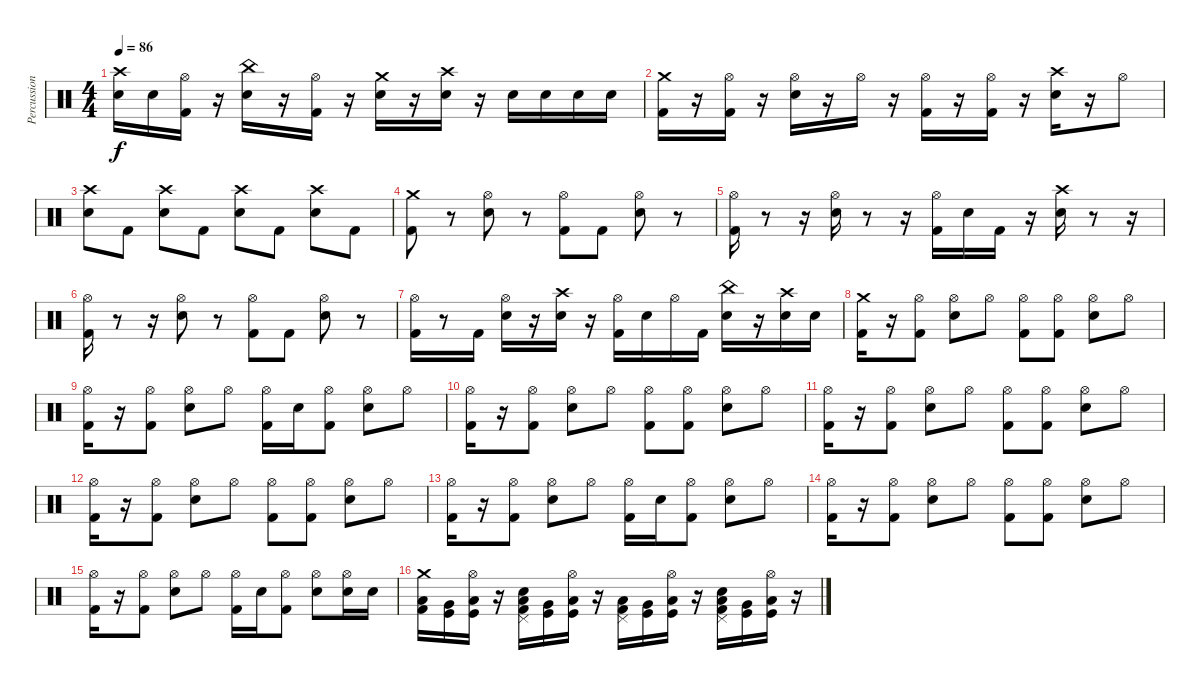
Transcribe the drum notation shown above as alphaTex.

\track ("Percussions" "Percussion") {instrument percussion}
\staff {score}
\articulation defaults
\ts (4 4)
\tempo 86
\clef neutral
\ks c
("Snare (hit) 2" "Crash high (hit)").16{dy f} "Snare (hit) 2".16 ("Hi-Hat (open)" "Kick (hit) 2").16 r.16 ("China (hit)" "Snare (hit) 2").16 r.16 ("Hi-Hat (open)" "Kick (hit) 2").16 r.16 ("Crash medium (hit)" "Snare (hit) 2").16 r.16 ("Crash high (hit)" "Snare (hit) 2").16 r.16 "Snare (hit) 2".16 "Snare (hit) 2".16 "Snare (hit) 2".16 "Snare (hit) 2".16 |
("Kick (hit) 2" "Crash medium (hit)").16 r.16 ("Hi-Hat (open)" "Kick (hit) 2").16 r.16 ("Hi-Hat (open)" "Snare (hit) 2").16 r.16 "Hi-Hat (open)".16 r.16 ("Hi-Hat (open)" "Kick (hit) 2").16 r.16 ("Hi-Hat (open)" "Kick (hit) 2").16 r.16 ("Crash high (hit)" "Snare (hit) 2").16 r.16 "Hi-Hat (open)".8 |
("Snare (hit) 2" "Crash high (hit)").8 "Kick (hit) 2".8 ("Crash high (hit)" "Snare (hit) 2").8 "Kick (hit) 2".8 ("Crash high (hit)" "Snare (hit) 2").8 "Kick (hit) 2".8 ("Crash high (hit)" "Snare (hit) 2").8 "Kick (hit) 2".8 |
("Kick (hit) 2" "Crash medium (hit)").8 r.8 ("Hi-Hat (open)" "Snare (hit) 2").8 r.8 ("Hi-Hat (open)" "Kick (hit) 2").8 "Kick (hit) 2".8 ("Hi-Hat (open)" "Snare (hit) 2").8 r.8 |
("Hi-Hat (open)" "Kick (hit) 2").16 r.8 r.16 ("Hi-Hat (open)" "Snare (hit) 2").16 r.8 r.16 ("Hi-Hat (open)" "Kick (hit) 2").16 "Snare (hit) 2".16 "Kick (hit) 2".16 r.16 ("Crash high (hit)" "Snare (hit) 2").16 r.8 r.16 |
("Hi-Hat (open)" "Kick (hit) 2").16 r.8 r.16 ("Hi-Hat (open)" "Snare (hit) 2").8 r.8 ("Hi-Hat (open)" "Kick (hit) 2").8 "Kick (hit) 2".8 ("Hi-Hat (open)" "Snare (hit) 2").8 r.8 |
("Hi-Hat (open)" "Kick (hit) 2").16 r.8 "Kick (hit) 2".16 ("Hi-Hat (open)" "Snare (hit) 2").16 r.16 ("Crash high (hit)" "Snare (hit) 2").16 r.16 ("Hi-Hat (open)" "Kick (hit) 2").16 "Snare (hit) 2".16 "Hi-Hat (open)".16 "Kick (hit) 2".16 ("China (hit)" "Snare (hit) 2").16 r.16 ("Crash high (hit)" "Snare (hit) 2").16 "Snare (hit) 2".16 |
("Kick (hit) 2" "Crash medium (hit)").16 r.16 ("Kick (hit) 2" "Hi-Hat (open)").8 ("Hi-Hat (open)" "Snare (hit) 2").8 "Hi-Hat (open)".8 ("Hi-Hat (open)" "Kick (hit) 2").8 ("Kick (hit) 2" "Hi-Hat (open)").8 ("Hi-Hat (open)" "Snare (hit) 2").8 "Hi-Hat (open)".8 |
("Kick (hit) 2" "Hi-Hat (open)").16 r.16 ("Kick (hit) 2" "Hi-Hat (open)").8 ("Snare (hit) 2" "Hi-Hat (open)").8 "Hi-Hat (open)".8 ("Kick (hit) 2" "Hi-Hat (open)").16 "Snare (hit) 2".16 ("Kick (hit) 2" "Hi-Hat (open)").8 ("Snare (hit) 2" "Hi-Hat (open)").8 "Hi-Hat (open)".8 |
("Kick (hit) 2" "Hi-Hat (open)").16 r.16 ("Kick (hit) 2" "Hi-Hat (open)").8 ("Snare (hit) 2" "Hi-Hat (open)").8 "Hi-Hat (open)".8 ("Kick (hit) 2" "Hi-Hat (open)").8 ("Kick (hit) 2" "Hi-Hat (open)").8 ("Snare (hit) 2" "Hi-Hat (open)").8 "Hi-Hat (open)".8 |
("Kick (hit) 2" "Hi-Hat (open)").16 r.16 ("Kick (hit) 2" "Hi-Hat (open)").8 ("Snare (hit) 2" "Hi-Hat (open)").8 "Hi-Hat (open)".8 ("Kick (hit) 2" "Hi-Hat (open)").8 ("Kick (hit) 2" "Hi-Hat (open)").8 ("Snare (hit) 2" "Hi-Hat (open)").8 "Hi-Hat (open)".8 |
("Kick (hit) 2" "Hi-Hat (open)").16 r.16 ("Kick (hit) 2" "Hi-Hat (open)").8 ("Snare (hit) 2" "Hi-Hat (open)").8 "Hi-Hat (open)".8 ("Kick (hit) 2" "Hi-Hat (open)").8 ("Kick (hit) 2" "Hi-Hat (open)").8 ("Snare (hit) 2" "Hi-Hat (open)").8 "Hi-Hat (open)".8 |
("Kick (hit) 2" "Hi-Hat (open)").16 r.16 ("Kick (hit) 2" "Hi-Hat (open)").8 ("Snare (hit) 2" "Hi-Hat (open)").8 "Hi-Hat (open)".8 ("Kick (hit) 2" "Hi-Hat (open)").16 "Snare (hit) 2".16 ("Kick (hit) 2" "Hi-Hat (open)").8 ("Snare (hit) 2" "Hi-Hat (open)").8 "Hi-Hat (open)".8 |
("Kick (hit) 2" "Hi-Hat (open)").16 r.16 ("Kick (hit) 2" "Hi-Hat (open)").8 ("Snare (hit) 2" "Hi-Hat (open)").8 "Hi-Hat (open)".8 ("Kick (hit) 2" "Hi-Hat (open)").8 ("Kick (hit) 2" "Hi-Hat (open)").8 ("Snare (hit) 2" "Hi-Hat (open)").8 "Hi-Hat (open)".8 |
("Kick (hit) 2" "Hi-Hat (open)").16 r.16 ("Kick (hit) 2" "Hi-Hat (open)").8 ("Snare (hit) 2" "Hi-Hat (open)").8 "Hi-Hat (open)".8 ("Kick (hit) 2" "Hi-Hat (open)").16 "Snare (hit) 2".16 ("Kick (hit) 2" "Hi-Hat (open)").8 ("Snare (hit) 2" "Hi-Hat (open)").8 ("Snare (hit) 2" "Hi-Hat (open)").16 "Snare (hit) 2".16 |
("Kick (hit) 2" "Crash medium (hit)" "Low Tom (hit)").16 ("Very Low Tom (hit)" "Kick (hit)").16 ("Hi-Hat (open)" "Low Floor Tom (hit)" "Kick (hit)").16 r.16 ("Kick (hit) 2" "Pedal Hi-Hat (hit)" "Snare (hit) 2" "Low Tom (hit)").16 ("Kick (hit)" "Very Low Tom (hit)").16 ("Hi-Hat (open)" "Kick (hit)" "Low Floor Tom (hit)").16 r.16 ("Pedal Hi-Hat (hit)" "Kick (hit) 2" "Low Tom (hit)").16 ("Kick (hit)" "Very Low Tom (hit)").16 ("Hi-Hat (open)" "Kick (hit)" "Low Floor Tom (hit)").16 r.16 ("Kick (hit) 2" "Pedal Hi-Hat (hit)" "Snare (hit) 2" "Low Tom (hit)").16 ("Kick (hit)" "Very Low Tom (hit)").16 ("Hi-Hat (open)" "Kick (hit)" "Low Floor Tom (hit)").16 r.16
